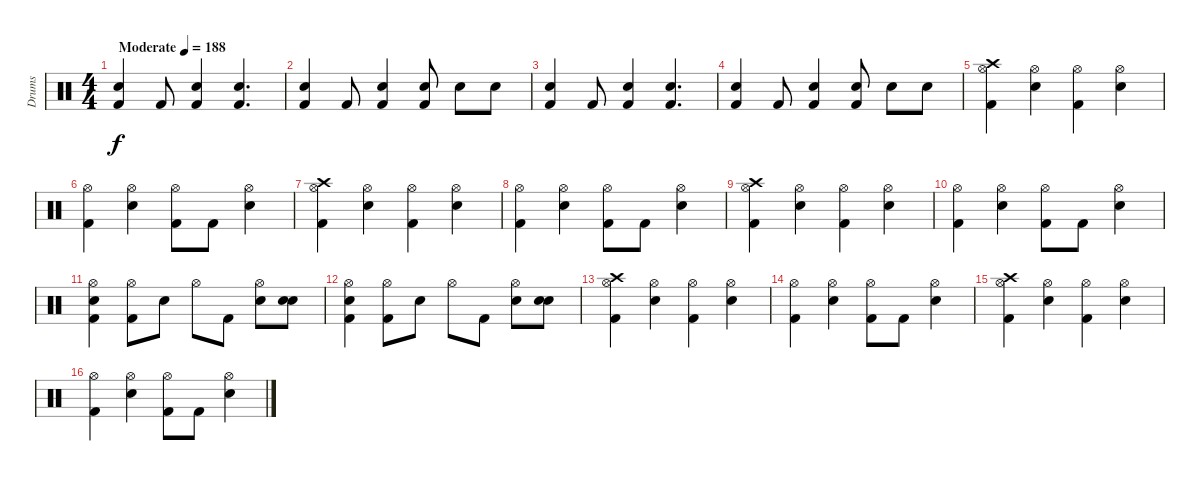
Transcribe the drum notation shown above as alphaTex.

\track ("Drums" "Drums") {instrument percussion}
\staff {score}
\articulation defaults
\ts (4 4)
\tempo (188 "Moderate")
\clef neutral
\ks c
("Snare (hit) 2" "Kick (hit) 2").4{dy f} "Kick (hit) 2".8 ("Snare (hit) 2" "Kick (hit) 2").4 ("Snare (hit) 2" "Kick (hit) 2").4{d} |
("Snare (hit) 2" "Kick (hit) 2").4 "Kick (hit) 2".8 ("Snare (hit) 2" "Kick (hit) 2").4 ("Snare (hit) 2" "Kick (hit) 2").8 "Snare (hit) 2".8 "Snare (hit) 2".8 |
("Snare (hit) 2" "Kick (hit) 2").4 "Kick (hit) 2".8 ("Snare (hit) 2" "Kick (hit) 2").4 ("Snare (hit) 2" "Kick (hit) 2").4{d} |
("Snare (hit) 2" "Kick (hit) 2").4 "Kick (hit) 2".8 ("Snare (hit) 2" "Kick (hit) 2").4 ("Snare (hit) 2" "Kick (hit) 2").8 "Snare (hit) 2".8 "Snare (hit) 2".8 |
("Crash high (hit)" "Hi-Hat (open)" "Kick (hit) 2").4 ("Hi-Hat (open)" "Snare (hit) 2").4 ("Hi-Hat (open)" "Kick (hit) 2").4 ("Hi-Hat (open)" "Snare (hit) 2").4 |
("Hi-Hat (open)" "Kick (hit) 2").4 ("Hi-Hat (open)" "Snare (hit) 2").4 ("Hi-Hat (open)" "Kick (hit) 2").8 "Kick (hit) 2".8 ("Hi-Hat (open)" "Snare (hit) 2").4 |
("Crash high (hit)" "Hi-Hat (open)" "Kick (hit) 2").4 ("Hi-Hat (open)" "Snare (hit) 2").4 ("Hi-Hat (open)" "Kick (hit) 2").4 ("Hi-Hat (open)" "Snare (hit) 2").4 |
("Hi-Hat (open)" "Kick (hit) 2").4 ("Hi-Hat (open)" "Snare (hit) 2").4 ("Hi-Hat (open)" "Kick (hit) 2").8 "Kick (hit) 2".8 ("Hi-Hat (open)" "Snare (hit) 2").4 |
("Crash high (hit)" "Hi-Hat (open)" "Kick (hit) 2").4 ("Hi-Hat (open)" "Snare (hit) 2").4 ("Hi-Hat (open)" "Kick (hit) 2").4 ("Hi-Hat (open)" "Snare (hit) 2").4 |
("Hi-Hat (open)" "Kick (hit) 2").4 ("Hi-Hat (open)" "Snare (hit) 2").4 ("Hi-Hat (open)" "Kick (hit) 2").8 "Kick (hit) 2".8 ("Hi-Hat (open)" "Snare (hit) 2").4 |
("Hi-Hat (open)" "Snare (hit) 2" "Kick (hit) 2").4 ("Hi-Hat (open)" "Kick (hit) 2").8 "Snare (hit) 2".8 "Hi-Hat (open)".8 "Kick (hit) 2".8 ("Hi-Hat (open)" "Snare (hit) 2").8 ("Snare (hit) 2" "Snare (hit) 2").8 |
("Hi-Hat (open)" "Snare (hit) 2" "Kick (hit) 2").4 ("Hi-Hat (open)" "Kick (hit) 2").8 "Snare (hit) 2".8 "Hi-Hat (open)".8 "Kick (hit) 2".8 ("Hi-Hat (open)" "Snare (hit) 2").8 ("Snare (hit) 2" "Snare (hit) 2").8 |
("Crash high (hit)" "Hi-Hat (open)" "Kick (hit) 2").4 ("Hi-Hat (open)" "Snare (hit) 2").4 ("Hi-Hat (open)" "Kick (hit) 2").4 ("Hi-Hat (open)" "Snare (hit) 2").4 |
("Hi-Hat (open)" "Kick (hit) 2").4 ("Hi-Hat (open)" "Snare (hit) 2").4 ("Hi-Hat (open)" "Kick (hit) 2").8 "Kick (hit) 2".8 ("Hi-Hat (open)" "Snare (hit) 2").4 |
("Crash high (hit)" "Hi-Hat (open)" "Kick (hit) 2").4 ("Hi-Hat (open)" "Snare (hit) 2").4 ("Hi-Hat (open)" "Kick (hit) 2").4 ("Hi-Hat (open)" "Snare (hit) 2").4 |
("Hi-Hat (open)" "Kick (hit) 2").4 ("Hi-Hat (open)" "Snare (hit) 2").4 ("Hi-Hat (open)" "Kick (hit) 2").8 "Kick (hit) 2".8 ("Hi-Hat (open)" "Snare (hit) 2").4
